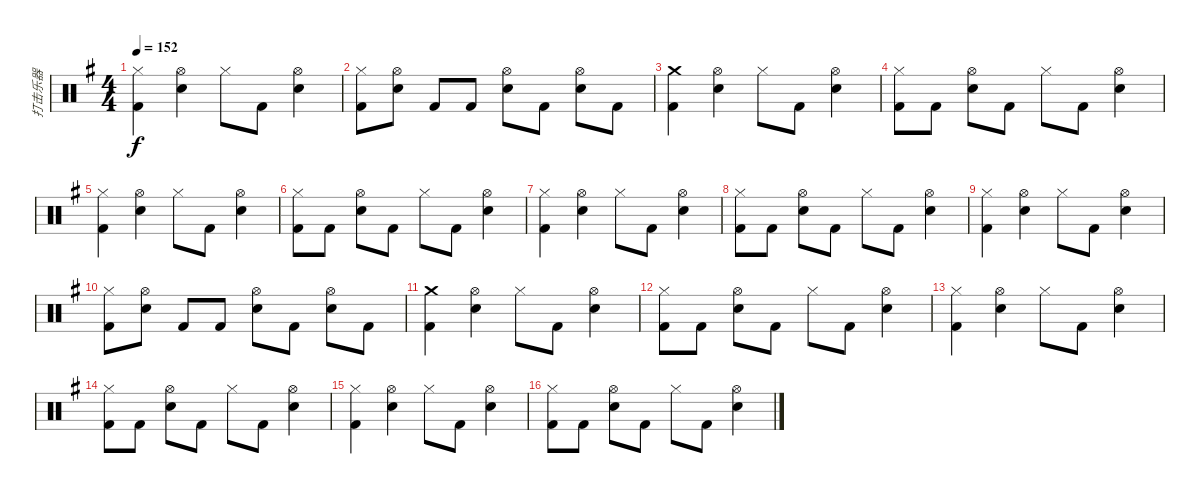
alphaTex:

\track ("打击乐器" "打击乐器") {instrument percussion}
\staff {score}
\articulation defaults
\ts (4 4)
\tempo 152
\clef neutral
\ks g
("Hi-Hat (closed)" "Kick (hit) 2").4{dy f} ("Hi-Hat (open)" "Metronome (bell)").4 "Hi-Hat (closed)".8 "Kick (hit) 2".8 ("Hi-Hat (open)" "Metronome (bell)").4 |
("Hi-Hat (closed)" "Kick (hit) 2").8 ("Hi-Hat (open)" "Metronome (bell)").8 "Kick (hit) 2".8 "Kick (hit) 2".8 ("Hi-Hat (open)" "Metronome (bell)").8 "Kick (hit) 2".8 ("Hi-Hat (open)" "Metronome (bell)").8 "Kick (hit) 2".8 |
("Crash medium (hit)" "Kick (hit) 2").4 ("Hi-Hat (open)" "Metronome (bell)").4 "Hi-Hat (closed)".8 "Kick (hit) 2".8 ("Hi-Hat (open)" "Metronome (bell)").4 |
("Hi-Hat (closed)" "Kick (hit) 2").8 "Kick (hit) 2".8 ("Hi-Hat (open)" "Metronome (bell)").8 "Kick (hit) 2".8 "Hi-Hat (closed)".8 "Kick (hit) 2".8 ("Hi-Hat (open)" "Metronome (bell)").4 |
("Hi-Hat (closed)" "Kick (hit) 2").4 ("Hi-Hat (open)" "Metronome (bell)").4 "Hi-Hat (closed)".8 "Kick (hit) 2".8 ("Hi-Hat (open)" "Metronome (bell)").4 |
("Hi-Hat (closed)" "Kick (hit) 2").8 "Kick (hit) 2".8 ("Hi-Hat (open)" "Metronome (bell)").8 "Kick (hit) 2".8 "Hi-Hat (closed)".8 "Kick (hit) 2".8 ("Hi-Hat (open)" "Metronome (bell)").4 |
("Hi-Hat (closed)" "Kick (hit) 2").4 ("Hi-Hat (open)" "Metronome (bell)").4 "Hi-Hat (closed)".8 "Kick (hit) 2".8 ("Hi-Hat (open)" "Metronome (bell)").4 |
("Hi-Hat (closed)" "Kick (hit) 2").8 "Kick (hit) 2".8 ("Hi-Hat (open)" "Metronome (bell)").8 "Kick (hit) 2".8 "Hi-Hat (closed)".8 "Kick (hit) 2".8 ("Hi-Hat (open)" "Metronome (bell)").4 |
("Hi-Hat (closed)" "Kick (hit) 2").4 ("Hi-Hat (open)" "Metronome (bell)").4 "Hi-Hat (closed)".8 "Kick (hit) 2".8 ("Hi-Hat (open)" "Metronome (bell)").4 |
("Hi-Hat (closed)" "Kick (hit) 2").8 ("Hi-Hat (open)" "Metronome (bell)").8 "Kick (hit) 2".8 "Kick (hit) 2".8 ("Hi-Hat (open)" "Metronome (bell)").8 "Kick (hit) 2".8 ("Hi-Hat (open)" "Metronome (bell)").8 "Kick (hit) 2".8 |
("Crash medium (hit)" "Kick (hit) 2").4 ("Hi-Hat (open)" "Metronome (bell)").4 "Hi-Hat (closed)".8 "Kick (hit) 2".8 ("Hi-Hat (open)" "Metronome (bell)").4 |
("Hi-Hat (closed)" "Kick (hit) 2").8 "Kick (hit) 2".8 ("Hi-Hat (open)" "Metronome (bell)").8 "Kick (hit) 2".8 "Hi-Hat (closed)".8 "Kick (hit) 2".8 ("Hi-Hat (open)" "Metronome (bell)").4 |
("Hi-Hat (closed)" "Kick (hit) 2").4 ("Hi-Hat (open)" "Metronome (bell)").4 "Hi-Hat (closed)".8 "Kick (hit) 2".8 ("Hi-Hat (open)" "Metronome (bell)").4 |
("Hi-Hat (closed)" "Kick (hit) 2").8 "Kick (hit) 2".8 ("Hi-Hat (open)" "Metronome (bell)").8 "Kick (hit) 2".8 "Hi-Hat (closed)".8 "Kick (hit) 2".8 ("Hi-Hat (open)" "Metronome (bell)").4 |
("Hi-Hat (closed)" "Kick (hit) 2").4 ("Hi-Hat (open)" "Metronome (bell)").4 "Hi-Hat (closed)".8 "Kick (hit) 2".8 ("Hi-Hat (open)" "Metronome (bell)").4 |
("Hi-Hat (closed)" "Kick (hit) 2").8 "Kick (hit) 2".8 ("Hi-Hat (open)" "Metronome (bell)").8 "Kick (hit) 2".8 "Hi-Hat (closed)".8 "Kick (hit) 2".8 ("Hi-Hat (open)" "Metronome (bell)").4
